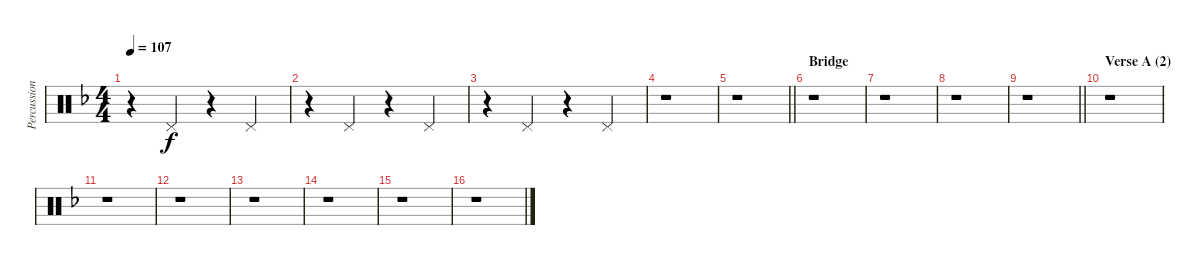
\track ("Percussion" "Percussion") {instrument percussion}
\staff {score}
\articulation defaults
\ts (4 4)
\tempo 107
\clef neutral
\ks dminor
r.4{dy f} "Pedal Hi-Hat (hit)".4 r.4 "Pedal Hi-Hat (hit)".4 |
r.4 "Pedal Hi-Hat (hit)".4 r.4 "Pedal Hi-Hat (hit)".4 |
r.4 "Pedal Hi-Hat (hit)".4 r.4 "Pedal Hi-Hat (hit)".4 |
r.1 |
\barLineRight lightlight
r.1 |
\section ("" "Bridge")
r.1 |
r.1 |
r.1 |
\barLineRight lightlight
r.1 |
\section ("" "Verse A (2)")
r.1 |
r.1 |
r.1 |
r.1 |
r.1 |
r.1 |
r.1
